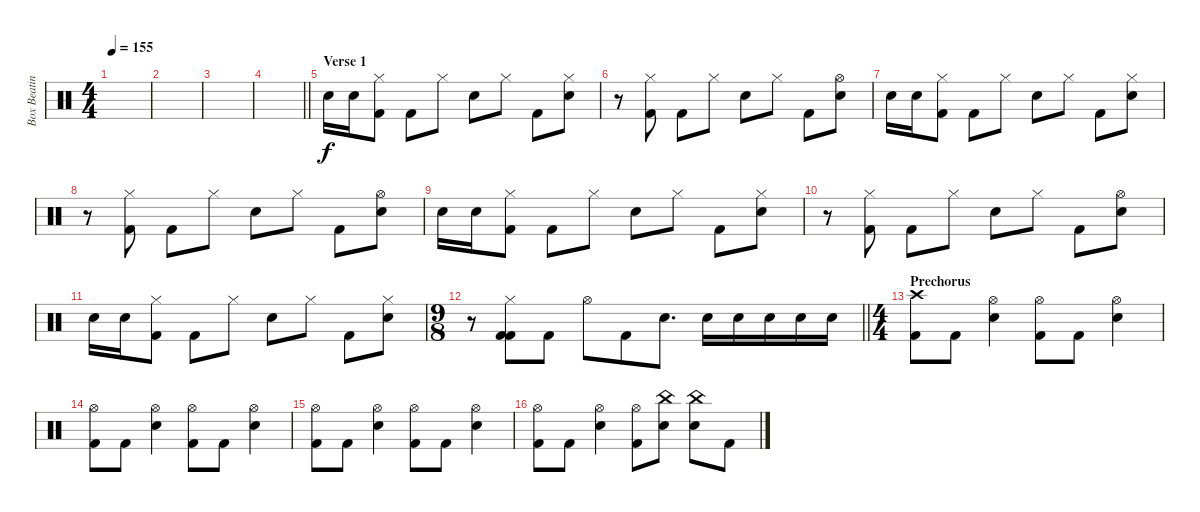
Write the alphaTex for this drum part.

\track ("Box Beating" "Box Beatin") {instrument percussion}
\staff {score}
\articulation defaults
\ts (4 4)
\section ("" "")
\tempo 155
\clef neutral
\ks c
|
|
|
\barLineRight lightlight
|
\section ("" "Verse 1")
"Electric Snare (hit)".16 "Electric Snare (hit)".16 ("Hi-Hat (closed)" "Kick (hit) 2").8 "Kick (hit) 2".8 "Hi-Hat (closed)".8 "Electric Snare (hit)".8 "Hi-Hat (closed)".8 "Kick (hit) 2".8 ("Hi-Hat (closed)" "Electric Snare (hit)").8 |
r.8 ("Hi-Hat (closed)" "Kick (hit) 2").8 "Kick (hit) 2".8 "Hi-Hat (closed)".8 "Electric Snare (hit)".8 "Hi-Hat (closed)".8 "Kick (hit) 2".8 ("Hi-Hat (open)" "Electric Snare (hit)").8 |
"Electric Snare (hit)".16 "Electric Snare (hit)".16 ("Hi-Hat (closed)" "Kick (hit) 2").8 "Kick (hit) 2".8 "Hi-Hat (closed)".8 "Electric Snare (hit)".8 "Hi-Hat (closed)".8 "Kick (hit) 2".8 ("Hi-Hat (closed)" "Electric Snare (hit)").8 |
r.8 ("Hi-Hat (closed)" "Kick (hit) 2").8 "Kick (hit) 2".8 "Hi-Hat (closed)".8 "Electric Snare (hit)".8 "Hi-Hat (closed)".8 "Kick (hit) 2".8 ("Hi-Hat (open)" "Electric Snare (hit)").8 |
"Electric Snare (hit)".16 "Electric Snare (hit)".16 ("Hi-Hat (closed)" "Kick (hit) 2").8 "Kick (hit) 2".8 "Hi-Hat (closed)".8 "Electric Snare (hit)".8 "Hi-Hat (closed)".8 "Kick (hit) 2".8 ("Hi-Hat (closed)" "Electric Snare (hit)").8 |
r.8 ("Hi-Hat (closed)" "Kick (hit) 2").8 "Kick (hit) 2".8 "Hi-Hat (closed)".8 "Electric Snare (hit)".8 "Hi-Hat (closed)".8 "Kick (hit) 2".8 ("Hi-Hat (open)" "Electric Snare (hit)").8 |
"Electric Snare (hit)".16 "Electric Snare (hit)".16 ("Hi-Hat (closed)" "Kick (hit) 2").8 "Kick (hit) 2".8 "Hi-Hat (closed)".8 "Electric Snare (hit)".8 "Hi-Hat (closed)".8 "Kick (hit) 2".8 ("Hi-Hat (closed)" "Electric Snare (hit)").8 |
\ts (9 8)
\barLineRight lightlight
r.8 ("Hi-Hat (closed)" "Kick (hit) 2" "Kick (hit) 2").8 "Kick (hit) 2".8 "Hi-Hat (open)".8 "Kick (hit) 2".8 "Electric Snare (hit)".8{d} "Electric Snare (hit)".16 "Electric Snare (hit)".16 "Electric Snare (hit)".16 "Electric Snare (hit)".16 "Electric Snare (hit)".16 |
\ts (4 4)
\section ("" "Prechorus")
("Crash high (hit)" "Kick (hit) 2").8 "Kick (hit) 2".8 ("Hi-Hat (open)" "Electric Snare (hit)").4 ("Hi-Hat (open)" "Kick (hit) 2").8 "Kick (hit) 2".8 ("Hi-Hat (open)" "Electric Snare (hit)").4 |
("Hi-Hat (open)" "Kick (hit) 2").8 "Kick (hit) 2".8 ("Hi-Hat (open)" "Electric Snare (hit)").4 ("Hi-Hat (open)" "Kick (hit) 2").8 "Kick (hit) 2".8 ("Hi-Hat (open)" "Electric Snare (hit)").4 |
("Hi-Hat (open)" "Kick (hit) 2").8 "Kick (hit) 2".8 ("Hi-Hat (open)" "Electric Snare (hit)").4 ("Hi-Hat (open)" "Kick (hit) 2").8 "Kick (hit) 2".8 ("Hi-Hat (open)" "Electric Snare (hit)").4 |
("Hi-Hat (open)" "Kick (hit) 2").8 "Kick (hit) 2".8 ("Hi-Hat (open)" "Electric Snare (hit)").4 ("Hi-Hat (open)" "Kick (hit) 2").8 ("China (hit)" "Electric Snare (hit)").8 ("China (hit)" "Electric Snare (hit)").8 "Kick (hit) 2".8
